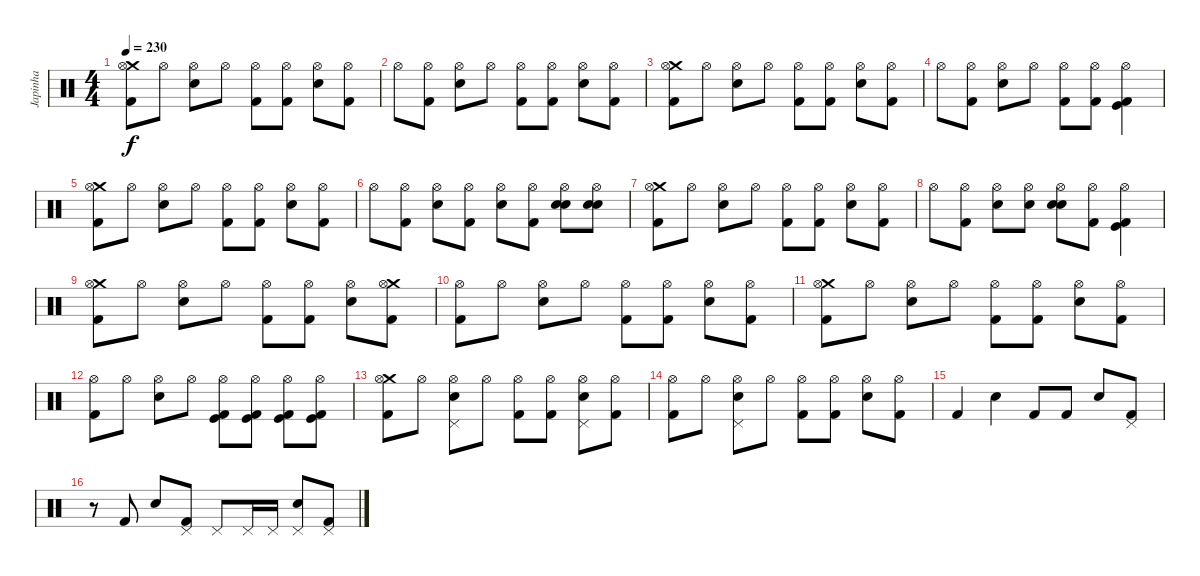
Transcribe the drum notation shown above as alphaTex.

\track ("Japinha" "Japinha") {instrument percussion}
\staff {score}
\articulation defaults
\ts (4 4)
\tempo 230
\clef neutral
\ks c
("Crash medium (hit)" "Hi-Hat (open)" "Kick (hit) 2").8{dy f} "Hi-Hat (open)".8 ("Hi-Hat (open)" "Snare (hit) 2").8 "Hi-Hat (open)".8 ("Hi-Hat (open)" "Kick (hit) 2").8 ("Hi-Hat (open)" "Kick (hit) 2").8 ("Hi-Hat (open)" "Snare (hit) 2").8 ("Hi-Hat (open)" "Kick (hit) 2").8 |
"Hi-Hat (open)".8 ("Hi-Hat (open)" "Kick (hit) 2").8 ("Hi-Hat (open)" "Snare (hit) 2").8 "Hi-Hat (open)".8 ("Hi-Hat (open)" "Kick (hit) 2").8 ("Hi-Hat (open)" "Kick (hit) 2").8 ("Hi-Hat (open)" "Snare (hit) 2").8 ("Hi-Hat (open)" "Kick (hit) 2").8 |
("Crash medium (hit)" "Hi-Hat (open)" "Kick (hit) 2").8 "Hi-Hat (open)".8 ("Hi-Hat (open)" "Snare (hit) 2").8 "Hi-Hat (open)".8 ("Hi-Hat (open)" "Kick (hit) 2").8 ("Hi-Hat (open)" "Kick (hit) 2").8 ("Hi-Hat (open)" "Snare (hit) 2").8 ("Hi-Hat (open)" "Kick (hit) 2").8 |
"Hi-Hat (open)".8 ("Hi-Hat (open)" "Kick (hit) 2").8 ("Hi-Hat (open)" "Snare (hit) 2").8 "Hi-Hat (open)".8 ("Hi-Hat (open)" "Kick (hit) 2").8 ("Hi-Hat (open)" "Kick (hit) 2").8 ("Hi-Hat (open)" "Kick (hit) 2" "Kick (hit)").4 |
("Crash medium (hit)" "Hi-Hat (open)" "Kick (hit) 2").8 "Hi-Hat (open)".8 ("Hi-Hat (open)" "Snare (hit) 2").8 "Hi-Hat (open)".8 ("Hi-Hat (open)" "Kick (hit) 2").8 ("Hi-Hat (open)" "Kick (hit) 2").8 ("Hi-Hat (open)" "Snare (hit) 2").8 ("Hi-Hat (open)" "Kick (hit) 2").8 |
"Hi-Hat (open)".8 ("Hi-Hat (open)" "Kick (hit) 2").8 ("Hi-Hat (open)" "Snare (hit) 2").8 ("Hi-Hat (open)" "Kick (hit) 2").8 ("Hi-Hat (open)" "Snare (hit) 2").8 ("Hi-Hat (open)" "Kick (hit) 2").8 ("Hi-Hat (open)" "Snare (hit) 2" "Electric Snare (hit)").8 ("Hi-Hat (open)" "Snare (hit) 2" "Electric Snare (hit)").8 |
("Crash medium (hit)" "Hi-Hat (open)" "Kick (hit) 2").8 "Hi-Hat (open)".8 ("Hi-Hat (open)" "Snare (hit) 2").8 "Hi-Hat (open)".8 ("Hi-Hat (open)" "Kick (hit) 2").8 ("Hi-Hat (open)" "Kick (hit) 2").8 ("Hi-Hat (open)" "Snare (hit) 2").8 ("Hi-Hat (open)" "Kick (hit) 2").8 |
"Hi-Hat (open)".8 ("Hi-Hat (open)" "Kick (hit) 2").8 ("Hi-Hat (open)" "Snare (hit) 2").8 ("Hi-Hat (open)" "Snare (hit) 2").8 ("Hi-Hat (open)" "Snare (hit) 2" "Electric Snare (hit)").8 ("Hi-Hat (open)" "Kick (hit) 2").8 ("Hi-Hat (open)" "Kick (hit) 2" "Kick (hit)").4 |
("Crash medium (hit)" "Hi-Hat (open)" "Kick (hit) 2").8 "Hi-Hat (open)".8 ("Hi-Hat (open)" "Snare (hit) 2").8 "Hi-Hat (open)".8 ("Hi-Hat (open)" "Kick (hit) 2").8 ("Hi-Hat (open)" "Kick (hit) 2").8 ("Hi-Hat (open)" "Snare (hit) 2").8 ("Crash medium (hit)" "Hi-Hat (open)" "Kick (hit) 2").8 |
("Hi-Hat (open)" "Kick (hit) 2").8 "Hi-Hat (open)".8 ("Hi-Hat (open)" "Snare (hit) 2").8 "Hi-Hat (open)".8 ("Hi-Hat (open)" "Kick (hit) 2").8 ("Hi-Hat (open)" "Kick (hit) 2").8 ("Hi-Hat (open)" "Snare (hit) 2").8 ("Hi-Hat (open)" "Kick (hit) 2").8 |
("Crash medium (hit)" "Hi-Hat (open)" "Kick (hit) 2").8 "Hi-Hat (open)".8 ("Hi-Hat (open)" "Snare (hit) 2").8 "Hi-Hat (open)".8 ("Hi-Hat (open)" "Kick (hit) 2").8 ("Hi-Hat (open)" "Kick (hit) 2").8 ("Hi-Hat (open)" "Snare (hit) 2").8 ("Hi-Hat (open)" "Kick (hit) 2").8 |
("Hi-Hat (open)" "Kick (hit) 2").8 "Hi-Hat (open)".8 ("Hi-Hat (open)" "Snare (hit) 2").8 "Hi-Hat (open)".8 ("Hi-Hat (open)" "Kick (hit) 2" "Kick (hit)").8 ("Hi-Hat (open)" "Kick (hit) 2" "Kick (hit)").8 ("Hi-Hat (open)" "Kick (hit) 2" "Kick (hit)").8 ("Hi-Hat (open)" "Kick (hit) 2" "Kick (hit)").8 |
("Crash medium (hit)" "Hi-Hat (open)" "Kick (hit) 2").8 "Hi-Hat (open)".8 ("Pedal Hi-Hat (hit)" "Hi-Hat (open)" "Snare (hit) 2").8 "Hi-Hat (open)".8 ("Hi-Hat (open)" "Kick (hit) 2").8 ("Hi-Hat (open)" "Kick (hit) 2").8 ("Pedal Hi-Hat (hit)" "Hi-Hat (open)" "Snare (hit) 2").8 ("Hi-Hat (open)" "Kick (hit) 2").8 |
("Hi-Hat (open)" "Kick (hit) 2").8 "Hi-Hat (open)".8 ("Pedal Hi-Hat (hit)" "Hi-Hat (open)" "Snare (hit) 2").8 "Hi-Hat (open)".8 ("Hi-Hat (open)" "Kick (hit) 2").8 ("Hi-Hat (open)" "Kick (hit) 2").8 ("Hi-Hat (open)" "Snare (hit) 2").8 ("Hi-Hat (open)" "Kick (hit) 2").8 |
"Kick (hit) 2".4 "Snare (hit) 2".4 "Kick (hit) 2".8 "Kick (hit) 2".8 "Snare (hit) 2".8 ("Pedal Hi-Hat (hit)" "Kick (hit) 2").8 |
r.8 "Kick (hit) 2".8 "Snare (hit) 2".8 ("Pedal Hi-Hat (hit)" "Kick (hit) 2").8 "Pedal Hi-Hat (hit)".8 "Pedal Hi-Hat (hit)".16 "Pedal Hi-Hat (hit)".16 ("Pedal Hi-Hat (hit)" "Snare (hit) 2").8 ("Pedal Hi-Hat (hit)" "Kick (hit) 2").8
